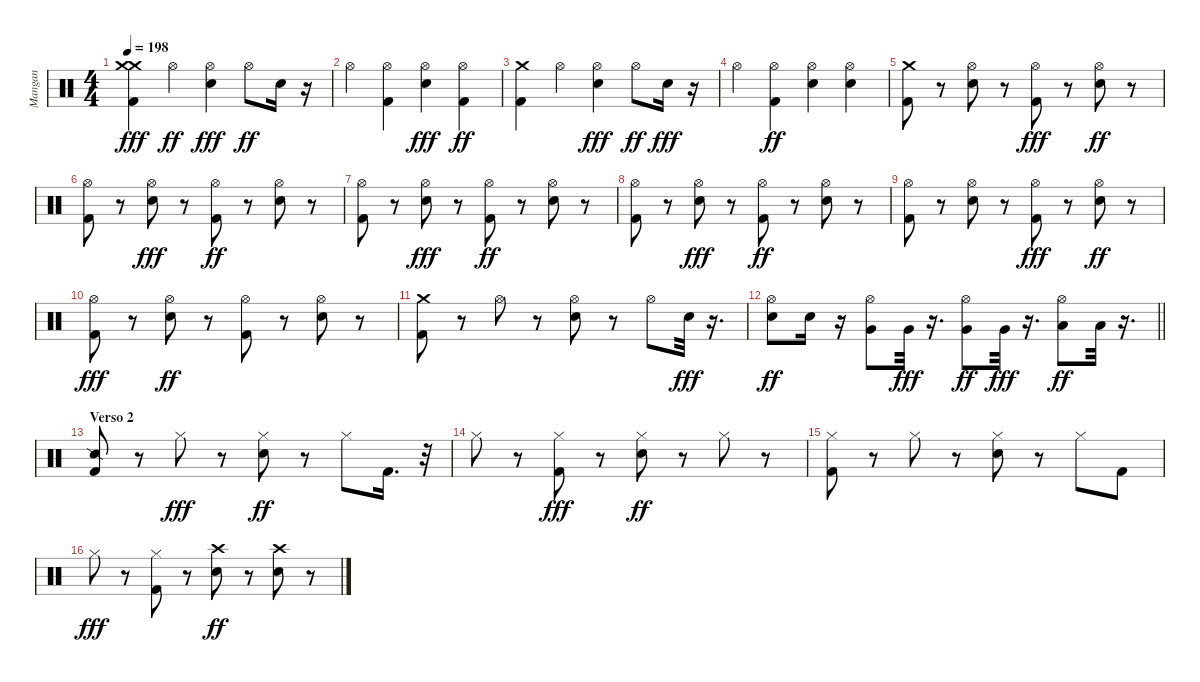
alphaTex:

\track ("Mangan" "Mangan") {instrument percussion}
\staff {score}
\articulation defaults
\ts (4 4)
\tempo 198
\clef neutral
\ks c
("Kick (hit) 2" "Crash medium (hit)" "Crash medium (hit)").4{dy fff} "Hi-Hat (open)".4{dy ff} ("Snare (hit) 2" "Hi-Hat (open)").4{dy fff} "Hi-Hat (open)".8{dy ff} "Snare (hit) 2".16 r.16 |
"Hi-Hat (open)".4 ("Kick (hit) 2" "Hi-Hat (open)").4 ("Snare (hit) 2" "Hi-Hat (open)").4{dy fff} ("Kick (hit) 2" "Hi-Hat (open)").4{dy ff} |
("Kick (hit) 2" "Crash medium (hit)").4 "Hi-Hat (open)".4 ("Snare (hit) 2" "Hi-Hat (open)").4{dy fff} "Hi-Hat (open)".8{dy ff} "Snare (hit) 2".16{dy fff} r.16 |
"Hi-Hat (open)".4 ("Kick (hit) 2" "Hi-Hat (open)").4{dy ff} ("Snare (hit) 2" "Hi-Hat (open)").4 ("Snare (hit) 2" "Hi-Hat (open)").4 |
("Kick (hit) 2" "Crash medium (hit)").8 r.8 ("Snare (hit) 2" "Hi-Hat (open)").8 r.8 ("Kick (hit) 2" "Hi-Hat (open)").8{dy fff} r.8 ("Snare (hit) 2" "Hi-Hat (open)").8{dy ff} r.8 |
("Kick (hit) 2" "Hi-Hat (open)").8 r.8 ("Snare (hit) 2" "Hi-Hat (open)").8{dy fff} r.8 ("Kick (hit) 2" "Hi-Hat (open)").8{dy ff} r.8 ("Snare (hit) 2" "Hi-Hat (open)").8 r.8 |
("Kick (hit) 2" "Hi-Hat (open)").8 r.8 ("Snare (hit) 2" "Hi-Hat (open)").8{dy fff} r.8 ("Kick (hit) 2" "Hi-Hat (open)").8{dy ff} r.8 ("Snare (hit) 2" "Hi-Hat (open)").8 r.8 |
("Kick (hit) 2" "Hi-Hat (open)").8 r.8 ("Snare (hit) 2" "Hi-Hat (open)").8{dy fff} r.8 ("Kick (hit) 2" "Hi-Hat (open)").8{dy ff} r.8 ("Snare (hit) 2" "Hi-Hat (open)").8 r.8 |
("Kick (hit) 2" "Hi-Hat (open)").8 r.8 ("Snare (hit) 2" "Hi-Hat (open)").8 r.8 ("Kick (hit) 2" "Hi-Hat (open)").8{dy fff} r.8 ("Snare (hit) 2" "Hi-Hat (open)").8{dy ff} r.8 |
("Kick (hit) 2" "Hi-Hat (open)").8{dy fff} r.8 ("Snare (hit) 2" "Hi-Hat (open)").8{dy ff} r.8 ("Kick (hit) 2" "Hi-Hat (open)").8 r.8 ("Snare (hit) 2" "Hi-Hat (open)").8 r.8 |
("Kick (hit) 2" "Crash medium (hit)").8 r.8 "Hi-Hat (open)".8 r.8 ("Snare (hit) 2" "Hi-Hat (open)").8 r.8 "Hi-Hat (open)".8 "Snare (hit) 2".32{dy fff} r.16{d} |
\barLineRight lightlight
("Snare (hit) 2" "Hi-Hat (open)").8{dy ff} "Snare (hit) 2".16 r.16 ("Very Low Tom (hit)" "Hi-Hat (open)").8 "Very Low Tom (hit)".32{dy fff} r.16{d} ("Very Low Tom (hit)" "Hi-Hat (open)").8{dy ff} "Very Low Tom (hit)".32{dy fff} r.16{d} ("Low Floor Tom (hit)" "Hi-Hat (open)").8{dy ff} "Low Floor Tom (hit)".32 r.16{d} |
\section ("" "Verso 2")
("Snare (side stick) 2" "Kick (hit) 2").8 r.8 "Hi-Hat (closed)".8{dy fff} r.8 ("Snare (hit) 2" "Hi-Hat (closed)").8{dy ff} r.8 "Hi-Hat (closed)".8 "Kick (hit) 2".16{d} r.32 |
"Hi-Hat (closed)".8 r.8 ("Kick (hit) 2" "Hi-Hat (closed)").8{dy fff} r.8 ("Snare (hit) 2" "Hi-Hat (closed)").8{dy ff} r.8 "Hi-Hat (closed)".8 r.8 |
("Kick (hit) 2" "Hi-Hat (closed)").8 r.8 "Hi-Hat (closed)".8 r.8 ("Snare (hit) 2" "Hi-Hat (closed)").8 r.8 "Hi-Hat (closed)".8 "Kick (hit) 2".8 |
"Hi-Hat (closed)".8{dy fff} r.8 ("Kick (hit) 2" "Hi-Hat (closed)").8 r.8 ("Snare (hit) 2" "Crash high (hit)").8{dy ff} r.8 ("Snare (hit) 2" "Crash high (hit)").8 r.8
